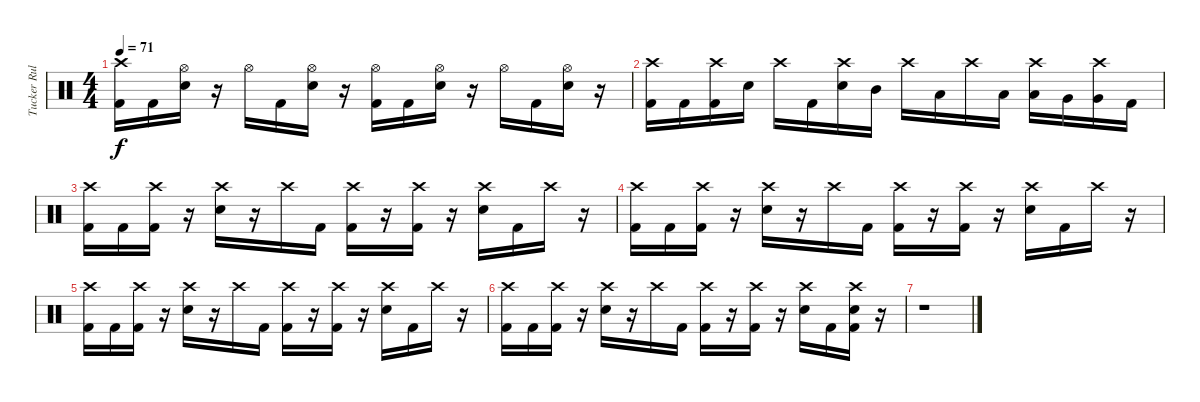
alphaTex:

\track ("Tucker Rule (Drums)" "Tucker Rul") {instrument percussion}
\staff {score}
\articulation defaults
\ts (4 4)
\tempo 71
\clef neutral
\ks c
("Crash high (hit)" "Kick (hit) 2").16{dy f} "Kick (hit) 2".16 ("Hi-Hat (open)" "Electric Snare (hit)").16 r.16 "Hi-Hat (open)".16 "Kick (hit) 2".16 ("Hi-Hat (open)" "Electric Snare (hit)").16 r.16 ("Hi-Hat (open)" "Kick (hit) 2").16 "Kick (hit) 2".16 ("Hi-Hat (open)" "Electric Snare (hit)").16 r.16 "Hi-Hat (open)".16 "Kick (hit) 2".16 ("Hi-Hat (open)" "Electric Snare (hit)").16 r.16 |
("Crash high (hit)" "Kick (hit) 2").16 "Kick (hit) 2".16 ("Crash high (hit)" "Kick (hit) 2").16 "Electric Snare (hit)".16 "Crash high (hit)".16 "Kick (hit) 2".16 ("Crash high (hit)" "Electric Snare (hit)").16 "Mid Tom (hit)".16 "Crash high (hit)".16 "Low Tom (hit)".16 "Crash high (hit)".16 "Low Tom (hit)".16 ("Crash high (hit)" "Low Tom (hit)").16 "Very Low Tom (hit)".16 ("Crash high (hit)" "Very Low Tom (hit)").16 "Kick (hit) 2".16 |
("Crash high (hit)" "Kick (hit) 2").16 "Kick (hit) 2".16 ("Crash high (hit)" "Kick (hit) 2").16 r.16 ("Crash high (hit)" "Electric Snare (hit)").16 r.16 "Crash high (hit)".16 "Kick (hit) 2".16 ("Crash high (hit)" "Kick (hit) 2").16 r.16 ("Crash high (hit)" "Kick (hit) 2").16 r.16 ("Crash high (hit)" "Electric Snare (hit)").16 "Kick (hit) 2".16 "Crash high (hit)".16 r.16 |
("Crash high (hit)" "Kick (hit) 2").16 "Kick (hit) 2".16 ("Crash high (hit)" "Kick (hit) 2").16 r.16 ("Crash high (hit)" "Electric Snare (hit)").16 r.16 "Crash high (hit)".16 "Kick (hit) 2".16 ("Crash high (hit)" "Kick (hit) 2").16 r.16 ("Crash high (hit)" "Kick (hit) 2").16 r.16 ("Crash high (hit)" "Electric Snare (hit)").16 "Kick (hit) 2".16 "Crash high (hit)".16 r.16 |
("Crash high (hit)" "Kick (hit) 2").16 "Kick (hit) 2".16 ("Crash high (hit)" "Kick (hit) 2").16 r.16 ("Crash high (hit)" "Electric Snare (hit)").16 r.16 "Crash high (hit)".16 "Kick (hit) 2".16 ("Crash high (hit)" "Kick (hit) 2").16 r.16 ("Crash high (hit)" "Kick (hit) 2").16 r.16 ("Crash high (hit)" "Electric Snare (hit)").16 "Kick (hit) 2".16 "Crash high (hit)".16 r.16 |
("Crash high (hit)" "Kick (hit) 2").16 "Kick (hit) 2".16 ("Crash high (hit)" "Kick (hit) 2").16 r.16 ("Crash high (hit)" "Electric Snare (hit)").16 r.16 "Crash high (hit)".16 "Kick (hit) 2".16 ("Crash high (hit)" "Kick (hit) 2").16 r.16 ("Crash high (hit)" "Kick (hit) 2").16 r.16 ("Crash high (hit)" "Electric Snare (hit)").16 "Kick (hit) 2".16 ("Crash high (hit)" "Electric Snare (hit)" "Kick (hit) 2").16 r.16 |
r.1
